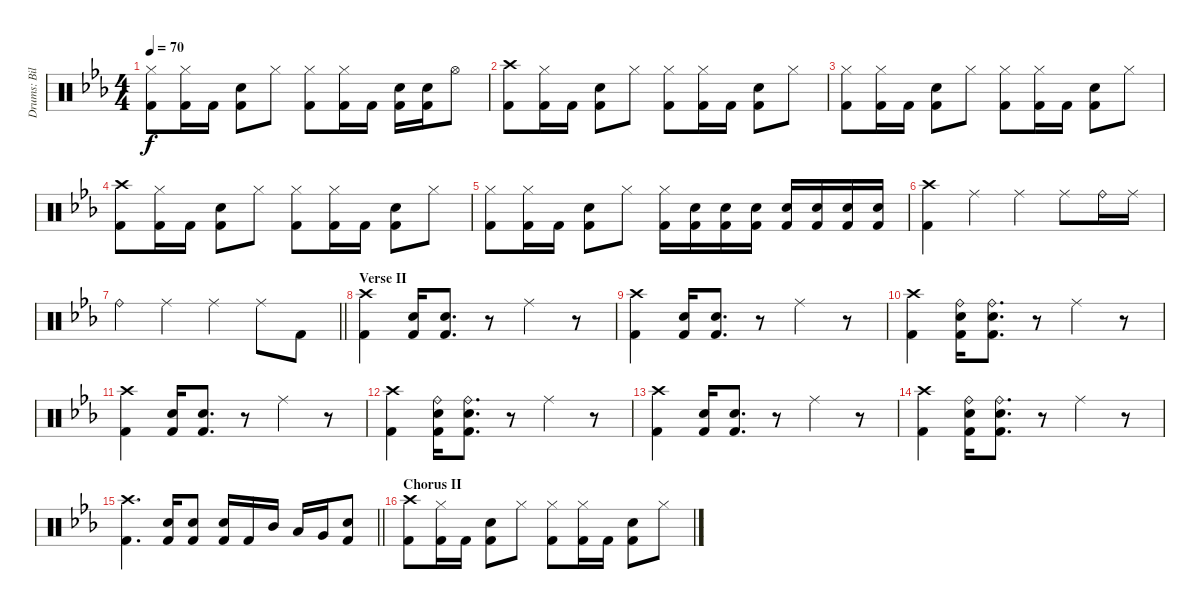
\track ("Drums: Bill" "Drums: Bil") {instrument percussion}
\staff {score}
\articulation defaults
\ts (4 4)
\tempo 70
\clef neutral
\ks eb
("Hi-Hat (closed)" "Kick (hit) 2").8{dy f} ("Hi-Hat (closed)" "Kick (hit) 2").16 "Kick (hit) 2".16 ("Snare (hit) 2" "Kick (hit) 2").8 "Hi-Hat (closed)".8 ("Hi-Hat (closed)" "Kick (hit) 2").8 ("Hi-Hat (closed)" "Kick (hit) 2").16 "Kick (hit) 2".16 ("Snare (hit) 2" "Kick (hit) 2").16 ("Snare (hit) 2" "Kick (hit) 2").16 "Hi-Hat (open)".8 |
("Crash high (hit)" "Kick (hit) 2").8 ("Hi-Hat (closed)" "Kick (hit) 2").16 "Kick (hit) 2".16 ("Snare (hit) 2" "Kick (hit) 2").8 "Hi-Hat (closed)".8 ("Hi-Hat (closed)" "Kick (hit) 2").8 ("Hi-Hat (closed)" "Kick (hit) 2").16 "Kick (hit) 2".16 ("Snare (hit) 2" "Kick (hit) 2").8 "Hi-Hat (closed)".8 |
("Hi-Hat (closed)" "Kick (hit) 2").8 ("Hi-Hat (closed)" "Kick (hit) 2").16 "Kick (hit) 2".16 ("Snare (hit) 2" "Kick (hit) 2").8 "Hi-Hat (closed)".8 ("Hi-Hat (closed)" "Kick (hit) 2").8 ("Hi-Hat (closed)" "Kick (hit) 2").16 "Kick (hit) 2".16 ("Snare (hit) 2" "Kick (hit) 2").8 "Hi-Hat (closed)".8 |
("Crash high (hit)" "Kick (hit) 2").8 ("Hi-Hat (closed)" "Kick (hit) 2").16 "Kick (hit) 2".16 ("Snare (hit) 2" "Kick (hit) 2").8 "Hi-Hat (closed)".8 ("Hi-Hat (closed)" "Kick (hit) 2").8 ("Hi-Hat (closed)" "Kick (hit) 2").16 "Kick (hit) 2".16 ("Snare (hit) 2" "Kick (hit) 2").8 "Hi-Hat (closed)".8 |
("Hi-Hat (closed)" "Kick (hit) 2").8 ("Hi-Hat (closed)" "Kick (hit) 2").16 "Kick (hit) 2".16 ("Snare (hit) 2" "Kick (hit) 2").8 "Hi-Hat (closed)".8 ("Hi-Hat (closed)" "Kick (hit) 2").16 ("Snare (hit) 2" "Kick (hit) 2").16 ("Snare (hit) 2" "Kick (hit) 2").16 ("Snare (hit) 2" "Kick (hit) 2").16 ("Snare (hit) 2" "Kick (hit) 2").16 ("Snare (hit) 2" "Kick (hit) 2").16 ("Snare (hit) 2" "Kick (hit) 2").16 ("Snare (hit) 2" "Kick (hit) 2").16 |
("Crash high (hit)" "Kick (hit) 2").4 "Ride (middle)".4 "Ride (middle)".4 "Ride (middle)".8 "Ride (bell)".16 "Ride (middle)".16 |
\barLineRight lightlight "Ride (bell)".4 "Ride (middle)".4 "Ride (middle)".4 "Ride (middle)".8 "Kick (hit) 2".8
|
\section ("" "Verse II")
("Crash high (hit)" "Kick (hit) 2").4 ("Snare (hit) 2" "Kick (hit) 2").16 ("Snare (hit) 2" "Kick (hit) 2").8{d} r.8 "Ride (middle)".4 r.8 |
("Crash high (hit)" "Kick (hit) 2").4 ("Snare (hit) 2" "Kick (hit) 2").16 ("Snare (hit) 2" "Kick (hit) 2").8{d} r.8 "Ride (middle)".4 r.8 |
("Crash high (hit)" "Kick (hit) 2").4 ("Ride (bell)" "Snare (hit) 2" "Kick (hit) 2").16 ("Ride (bell)" "Snare (hit) 2" "Kick (hit) 2").8{d} r.8 "Ride (middle)".4 r.8 |
("Crash high (hit)" "Kick (hit) 2").4 ("Snare (hit) 2" "Kick (hit) 2").16 ("Snare (hit) 2" "Kick (hit) 2").8{d} r.8 "Ride (middle)".4 r.8 |
("Crash high (hit)" "Kick (hit) 2").4 ("Ride (bell)" "Snare (hit) 2" "Kick (hit) 2").16 ("Ride (bell)" "Snare (hit) 2" "Kick (hit) 2").8{d} r.8 "Ride (middle)".4 r.8 |
("Crash high (hit)" "Kick (hit) 2").4 ("Snare (hit) 2" "Kick (hit) 2").16 ("Snare (hit) 2" "Kick (hit) 2").8{d} r.8 "Ride (middle)".4 r.8 |
("Crash high (hit)" "Kick (hit) 2").4 ("Ride (bell)" "Snare (hit) 2" "Kick (hit) 2").16 ("Ride (bell)" "Snare (hit) 2" "Kick (hit) 2").8{d} r.8 "Ride (middle)".4 r.8 |
\barLineRight lightlight
("Crash high (hit)" "Kick (hit) 2").4{d} ("Snare (hit) 2" "Kick (hit) 2").16 ("Snare (hit) 2" "Kick (hit) 2").8 ("Snare (hit) 2" "Kick (hit) 2").16 "Kick (hit) 2".16 "Mid Tom (hit)".16 "Low Tom (hit)".16 "Very Low Tom (hit)".16 ("Snare (hit) 2" "Kick (hit) 2").8 |
\section ("" "Chorus II")
("Crash high (hit)" "Kick (hit) 2").8 ("Hi-Hat (closed)" "Kick (hit) 2").16 "Kick (hit) 2".16 ("Snare (hit) 2" "Kick (hit) 2").8 "Hi-Hat (closed)".8 ("Hi-Hat (closed)" "Kick (hit) 2").8 ("Hi-Hat (closed)" "Kick (hit) 2").16 "Kick (hit) 2".16 ("Snare (hit) 2" "Kick (hit) 2").8 "Hi-Hat (closed)".8
